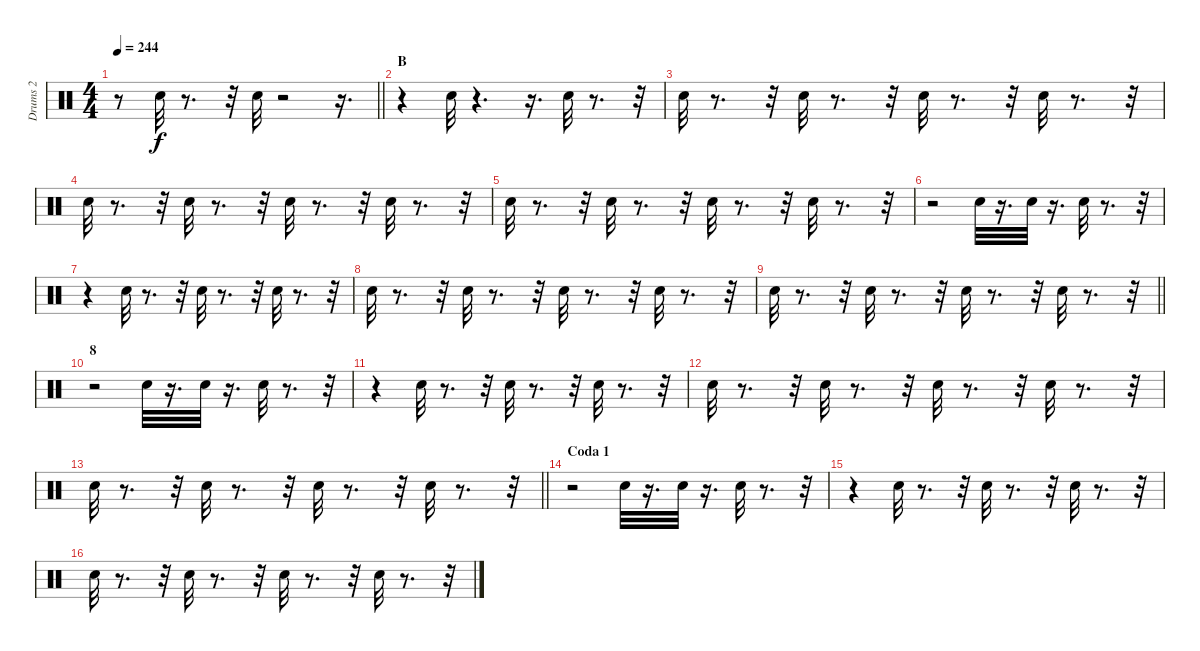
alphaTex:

\track ("Drums 2" "Drums 2") {instrument percussion}
\staff {score}
\articulation defaults
\ts (4 4)
\tempo 244
\clef neutral
\barLineRight lightlight
\ks c
r.8{dy f} "Electric Snare (hit)".32 r.8{d} r.32 "Electric Snare (hit)".32 r.2 r.16{d} |
\section ("" "B")
r.4 "Electric Snare (hit)".32 r.4{d} r.16{d} "Electric Snare (hit)".32 r.8{d} r.32 |
"Electric Snare (hit)".32 r.8{d} r.32 "Electric Snare (hit)".32 r.8{d} r.32 "Electric Snare (hit)".32 r.8{d} r.32 "Electric Snare (hit)".32 r.8{d} r.32 |
"Electric Snare (hit)".32 r.8{d} r.32 "Electric Snare (hit)".32 r.8{d} r.32 "Electric Snare (hit)".32 r.8{d} r.32 "Electric Snare (hit)".32 r.8{d} r.32 |
"Electric Snare (hit)".32 r.8{d} r.32 "Electric Snare (hit)".32 r.8{d} r.32 "Electric Snare (hit)".32 r.8{d} r.32 "Electric Snare (hit)".32 r.8{d} r.32 |
r.2 "Electric Snare (hit)".32 r.16{d} "Electric Snare (hit)".32 r.16{d} "Electric Snare (hit)".32 r.8{d} r.32 |
r.4 "Electric Snare (hit)".32 r.8{d} r.32 "Electric Snare (hit)".32 r.8{d} r.32 "Electric Snare (hit)".32 r.8{d} r.32 |
"Electric Snare (hit)".32 r.8{d} r.32 "Electric Snare (hit)".32 r.8{d} r.32 "Electric Snare (hit)".32 r.8{d} r.32 "Electric Snare (hit)".32 r.8{d} r.32 |
\barLineRight lightlight "Electric Snare (hit)".32
r.8{d} r.32 "Electric Snare (hit)".32 r.8{d} r.32 "Electric Snare (hit)".32 r.8{d} r.32 "Electric Snare (hit)".32 r.8{d} r.32 |
\section ("" "8")
r.2 "Electric Snare (hit)".32 r.16{d} "Electric Snare (hit)".32 r.16{d} "Electric Snare (hit)".32 r.8{d} r.32 |
r.4 "Electric Snare (hit)".32 r.8{d} r.32 "Electric Snare (hit)".32 r.8{d} r.32 "Electric Snare (hit)".32 r.8{d} r.32 |
"Electric Snare (hit)".32 r.8{d} r.32 "Electric Snare (hit)".32 r.8{d} r.32 "Electric Snare (hit)".32 r.8{d} r.32 "Electric Snare (hit)".32 r.8{d} r.32 |
\barLineRight lightlight "Electric Snare (hit)".32
r.8{d} r.32 "Electric Snare (hit)".32 r.8{d} r.32 "Electric Snare (hit)".32 r.8{d} r.32 "Electric Snare (hit)".32 r.8{d} r.32 |
\section ("" "Coda 1")
r.2 "Electric Snare (hit)".32 r.16{d} "Electric Snare (hit)".32 r.16{d} "Electric Snare (hit)".32 r.8{d} r.32 |
r.4 "Electric Snare (hit)".32 r.8{d} r.32 "Electric Snare (hit)".32 r.8{d} r.32 "Electric Snare (hit)".32 r.8{d} r.32 |
"Electric Snare (hit)".32 r.8{d} r.32 "Electric Snare (hit)".32 r.8{d} r.32 "Electric Snare (hit)".32 r.8{d} r.32 "Electric Snare (hit)".32 r.8{d} r.32
